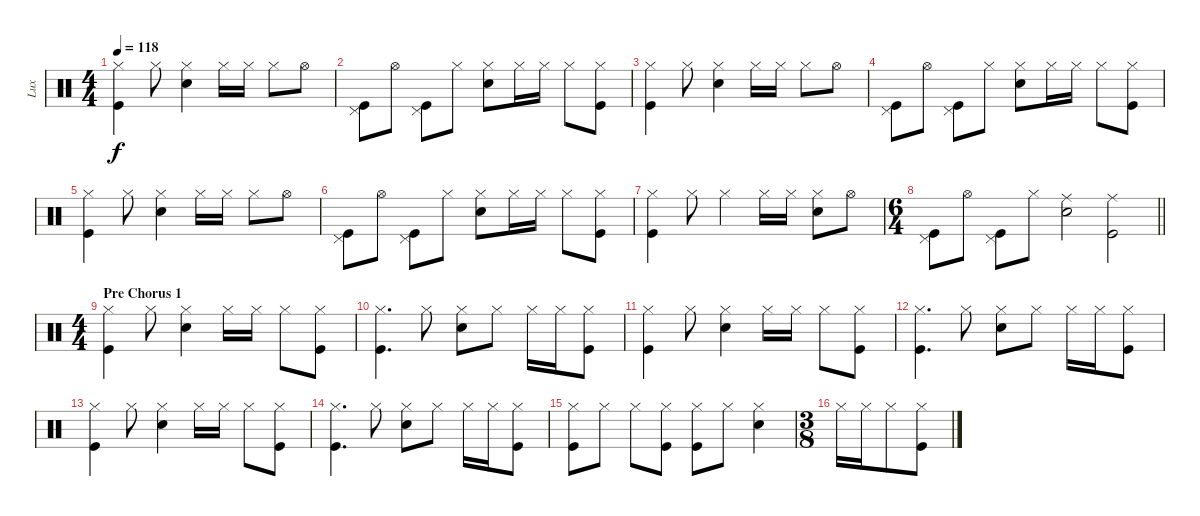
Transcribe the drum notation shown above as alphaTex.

\track ("Lux" "Lux") {instrument percussion}
\staff {score}
\articulation defaults
\ts (4 4)
\tempo 118
\clef neutral
\ks c
("Hi-Hat (closed)" "Kick (hit)").4{dy f} "Hi-Hat (closed)".8 ("Hi-Hat (closed)" "Snare (hit) 2").4 "Hi-Hat (closed)".16 "Hi-Hat (closed)".16 "Hi-Hat (closed)".8 "Hi-Hat (open)".8 |
("Kick (hit)" "Pedal Hi-Hat (hit)").8 "Hi-Hat (open)".8 ("Kick (hit)" "Pedal Hi-Hat (hit)").8 "Hi-Hat (closed)".8 ("Hi-Hat (closed)" "Snare (hit) 2").8 "Hi-Hat (closed)".16 "Hi-Hat (closed)".16 "Hi-Hat (closed)".8 ("Hi-Hat (closed)" "Kick (hit)").8 |
("Hi-Hat (closed)" "Kick (hit)").4 "Hi-Hat (closed)".8 ("Hi-Hat (closed)" "Snare (hit) 2").4 "Hi-Hat (closed)".16 "Hi-Hat (closed)".16 "Hi-Hat (closed)".8 "Hi-Hat (open)".8 |
("Kick (hit)" "Pedal Hi-Hat (hit)").8 "Hi-Hat (open)".8 ("Kick (hit)" "Pedal Hi-Hat (hit)").8 "Hi-Hat (closed)".8 ("Hi-Hat (closed)" "Snare (hit) 2").8 "Hi-Hat (closed)".16 "Hi-Hat (closed)".16 "Hi-Hat (closed)".8 ("Hi-Hat (closed)" "Kick (hit)").8 |
("Hi-Hat (closed)" "Kick (hit)").4 "Hi-Hat (closed)".8 ("Hi-Hat (closed)" "Snare (hit) 2").4 "Hi-Hat (closed)".16 "Hi-Hat (closed)".16 "Hi-Hat (closed)".8 "Hi-Hat (open)".8 |
("Kick (hit)" "Pedal Hi-Hat (hit)").8 "Hi-Hat (open)".8 ("Kick (hit)" "Pedal Hi-Hat (hit)").8 "Hi-Hat (closed)".8 ("Hi-Hat (closed)" "Snare (hit) 2").8 "Hi-Hat (closed)".16 "Hi-Hat (closed)".16 "Hi-Hat (closed)".8 ("Hi-Hat (closed)" "Kick (hit)").8 |
("Hi-Hat (closed)" "Kick (hit)").4 "Hi-Hat (closed)".8 "Hi-Hat (closed)".4 "Hi-Hat (closed)".16 "Hi-Hat (closed)".16 ("Hi-Hat (closed)" "Snare (hit) 2").8 "Hi-Hat (open)".8 |
\ts (6 4)
\barLineRight lightlight
("Kick (hit)" "Pedal Hi-Hat (hit)").8 "Hi-Hat (open)".8 ("Kick (hit)" "Pedal Hi-Hat (hit)").8 "Hi-Hat (closed)".8 ("Ride (middle)" "Snare (hit) 2").2 ("Ride (middle)" "Kick (hit)").2 |
\ts (4 4)
\section ("" "Pre Chorus 1")
("Hi-Hat (closed)" "Kick (hit)").4 "Hi-Hat (closed)".8 ("Hi-Hat (closed)" "Snare (hit) 2").4 "Hi-Hat (closed)".16 "Hi-Hat (closed)".16 "Hi-Hat (closed)".8 ("Hi-Hat (closed)" "Kick (hit)").8 |
("Hi-Hat (closed)" "Kick (hit)").4{d} "Hi-Hat (closed)".8 ("Hi-Hat (closed)" "Snare (hit) 2").8 "Hi-Hat (closed)".8 "Hi-Hat (closed)".16 "Hi-Hat (closed)".16 ("Hi-Hat (closed)" "Kick (hit)").8 |
("Hi-Hat (closed)" "Kick (hit)").4 "Hi-Hat (closed)".8 ("Hi-Hat (closed)" "Snare (hit) 2").4 "Hi-Hat (closed)".16 "Hi-Hat (closed)".16 "Hi-Hat (closed)".8 ("Hi-Hat (closed)" "Kick (hit)").8 |
("Hi-Hat (closed)" "Kick (hit)").4{d} "Hi-Hat (closed)".8 ("Hi-Hat (closed)" "Snare (hit) 2").8 "Hi-Hat (closed)".8 "Hi-Hat (closed)".16 "Hi-Hat (closed)".16 ("Hi-Hat (closed)" "Kick (hit)").8 |
("Hi-Hat (closed)" "Kick (hit)").4 "Hi-Hat (closed)".8 ("Hi-Hat (closed)" "Snare (hit) 2").4 "Hi-Hat (closed)".16 "Hi-Hat (closed)".16 "Hi-Hat (closed)".8 ("Hi-Hat (closed)" "Kick (hit)").8 |
("Hi-Hat (closed)" "Kick (hit)").4{d} "Hi-Hat (closed)".8 ("Hi-Hat (closed)" "Snare (hit) 2").8 "Hi-Hat (closed)".8 "Hi-Hat (closed)".16 "Hi-Hat (closed)".16 ("Hi-Hat (closed)" "Kick (hit)").8 |
("Hi-Hat (closed)" "Kick (hit)").8 "Hi-Hat (closed)".8 "Hi-Hat (closed)".8 ("Hi-Hat (closed)" "Kick (hit)").8 ("Hi-Hat (closed)" "Kick (hit)").8 "Hi-Hat (closed)".8 ("Hi-Hat (closed)" "Snare (hit) 2").4 |
\ts (3 8)
"Hi-Hat (closed)".16 "Hi-Hat (closed)".16 "Hi-Hat (closed)".8 ("Hi-Hat (closed)" "Kick (hit)").8
